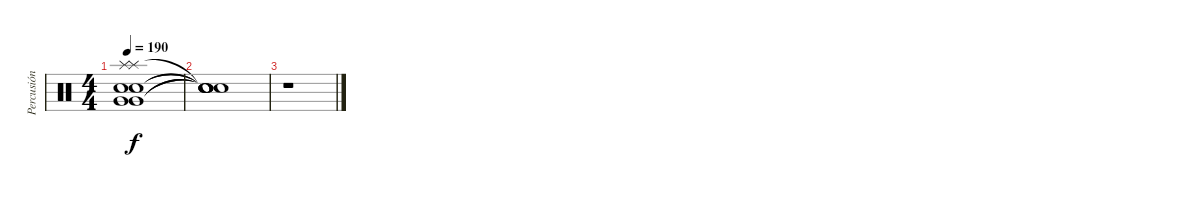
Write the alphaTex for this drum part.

\track ("Percusión" "Percusión") {instrument percussion}
\staff {score}
\articulation defaults
\ts (4 4)
\tempo 190
\clef neutral
\ks c
("Snare (hit) 2" "Snare (hit) 2" "Very Low Tom (hit)" "Very Low Tom (hit)" "Splash (hit)" "Splash (hit)").1{dy f} |
("Snare (hit)"{t} "Snare (hit)"{t} "Snare (hit)"{t} "Snare (hit)"{t} "Snare (hit)"{t}).1 |
r.1
